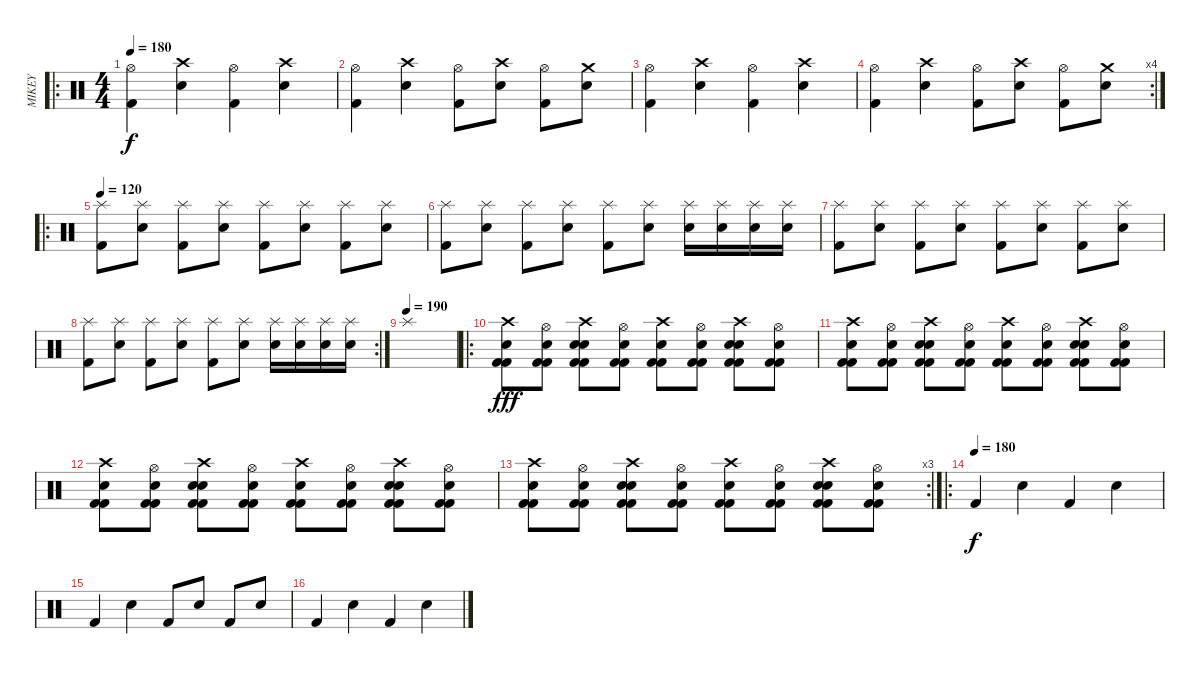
\track ("MIKEY" "MIKEY") {instrument percussion}
\staff {score}
\articulation defaults
\ro
\ts (4 4)
\tempo 180
\clef neutral
\ks c
("Hi-Hat (open)" "Kick (hit) 2").4{dy f} ("Crash high (hit)" "Snare (hit) 2").4 ("Hi-Hat (open)" "Kick (hit) 2").4 ("Crash high (hit)" "Snare (hit) 2").4 |
("Hi-Hat (open)" "Kick (hit) 2").4 ("Crash high (hit)" "Snare (hit) 2").4 ("Hi-Hat (open)" "Kick (hit) 2").8 ("Crash high (hit)" "Snare (hit) 2").8 ("Hi-Hat (open)" "Kick (hit) 2").8 ("Crash medium (hit)" "Snare (hit) 2").8 |
("Hi-Hat (open)" "Kick (hit) 2").4 ("Crash high (hit)" "Snare (hit) 2").4 ("Hi-Hat (open)" "Kick (hit) 2").4 ("Crash high (hit)" "Snare (hit) 2").4 |
\rc 4
("Hi-Hat (open)" "Kick (hit) 2").4 ("Crash high (hit)" "Snare (hit) 2").4 ("Hi-Hat (open)" "Kick (hit) 2").8 ("Crash high (hit)" "Snare (hit) 2").8 ("Hi-Hat (open)" "Kick (hit) 2").8 ("Crash medium (hit)" "Snare (hit) 2").8 |
\ro
\tempo 120
("Splash (hit)" "Kick (hit) 2").8 ("Splash (hit)" "Electric Snare (hit)").8 ("Splash (hit)" "Kick (hit) 2").8 ("Splash (hit)" "Electric Snare (hit)").8 ("Splash (hit)" "Kick (hit) 2").8 ("Splash (hit)" "Electric Snare (hit)").8 ("Splash (hit)" "Kick (hit) 2").8 ("Splash (hit)" "Electric Snare (hit)").8 |
("Splash (hit)" "Kick (hit) 2").8 ("Splash (hit)" "Electric Snare (hit)").8 ("Splash (hit)" "Kick (hit) 2").8 ("Splash (hit)" "Electric Snare (hit)").8 ("Splash (hit)" "Kick (hit) 2").8 ("Splash (hit)" "Electric Snare (hit)").8 ("Splash (hit)" "Electric Snare (hit)").16 ("Splash (hit)" "Electric Snare (hit)").16 ("Splash (hit)" "Electric Snare (hit)").16 ("Splash (hit)" "Electric Snare (hit)").16 |
("Splash (hit)" "Kick (hit) 2").8 ("Splash (hit)" "Electric Snare (hit)").8 ("Splash (hit)" "Kick (hit) 2").8 ("Splash (hit)" "Electric Snare (hit)").8 ("Splash (hit)" "Kick (hit) 2").8 ("Splash (hit)" "Electric Snare (hit)").8 ("Splash (hit)" "Kick (hit) 2").8 ("Splash (hit)" "Electric Snare (hit)").8 |
\rc 2
("Splash (hit)" "Kick (hit) 2").8 ("Splash (hit)" "Electric Snare (hit)").8 ("Splash (hit)" "Kick (hit) 2").8 ("Splash (hit)" "Electric Snare (hit)").8 ("Splash (hit)" "Kick (hit) 2").8 ("Splash (hit)" "Electric Snare (hit)").8 ("Splash (hit)" "Electric Snare (hit)").16 ("Splash (hit)" "Electric Snare (hit)").16 ("Splash (hit)" "Electric Snare (hit)").16 ("Splash (hit)" "Electric Snare (hit)").16 |
\tempo (190)
"Splash (hit)".1 |
\ro
("Electric Snare (hit)" "Kick (hit) 2" "Crash high (hit)" "Kick (hit) 2").8{dy fff} ("Electric Snare (hit)" "Kick (hit) 2" "Hi-Hat (open)" "Kick (hit) 2").8 ("Electric Snare (hit)" "Kick (hit) 2" "Crash high (hit)" "Snare (hit) 2" "Kick (hit) 2").8 ("Electric Snare (hit)" "Kick (hit) 2" "Hi-Hat (open)" "Kick (hit) 2").8 ("Electric Snare (hit)" "Kick (hit) 2" "Crash high (hit)" "Kick (hit) 2").8 ("Electric Snare (hit)" "Kick (hit) 2" "Hi-Hat (open)" "Kick (hit) 2").8 ("Electric Snare (hit)" "Kick (hit) 2" "Crash high (hit)" "Snare (hit) 2" "Kick (hit) 2").8 ("Electric Snare (hit)" "Kick (hit) 2" "Hi-Hat (open)" "Kick (hit) 2").8 |
("Electric Snare (hit)" "Kick (hit) 2" "Crash high (hit)" "Kick (hit) 2").8 ("Electric Snare (hit)" "Kick (hit) 2" "Hi-Hat (open)" "Kick (hit) 2").8 ("Electric Snare (hit)" "Kick (hit) 2" "Crash high (hit)" "Snare (hit) 2" "Kick (hit) 2").8 ("Electric Snare (hit)" "Kick (hit) 2" "Hi-Hat (open)" "Kick (hit) 2").8 ("Electric Snare (hit)" "Kick (hit) 2" "Crash high (hit)" "Kick (hit) 2").8 ("Electric Snare (hit)" "Kick (hit) 2" "Hi-Hat (open)" "Kick (hit) 2").8 ("Electric Snare (hit)" "Kick (hit) 2" "Crash high (hit)" "Snare (hit) 2" "Kick (hit) 2").8 ("Electric Snare (hit)" "Kick (hit) 2" "Hi-Hat (open)" "Kick (hit) 2").8 |
("Electric Snare (hit)" "Kick (hit) 2" "Crash high (hit)" "Kick (hit) 2").8 ("Electric Snare (hit)" "Kick (hit) 2" "Hi-Hat (open)" "Kick (hit) 2").8 ("Electric Snare (hit)" "Kick (hit) 2" "Crash high (hit)" "Snare (hit) 2" "Kick (hit) 2").8 ("Electric Snare (hit)" "Kick (hit) 2" "Hi-Hat (open)" "Kick (hit) 2").8 ("Electric Snare (hit)" "Kick (hit) 2" "Crash high (hit)" "Kick (hit) 2").8 ("Electric Snare (hit)" "Kick (hit) 2" "Hi-Hat (open)" "Kick (hit) 2").8 ("Electric Snare (hit)" "Kick (hit) 2" "Crash high (hit)" "Snare (hit) 2" "Kick (hit) 2").8 ("Electric Snare (hit)" "Kick (hit) 2" "Hi-Hat (open)" "Kick (hit) 2").8 |
\rc 3
("Electric Snare (hit)" "Kick (hit) 2" "Crash high (hit)" "Kick (hit) 2").8 ("Electric Snare (hit)" "Kick (hit) 2" "Hi-Hat (open)" "Kick (hit) 2").8 ("Electric Snare (hit)" "Kick (hit) 2" "Crash high (hit)" "Snare (hit) 2" "Kick (hit) 2").8 ("Electric Snare (hit)" "Kick (hit) 2" "Hi-Hat (open)" "Kick (hit) 2").8 ("Electric Snare (hit)" "Kick (hit) 2" "Crash high (hit)" "Kick (hit) 2").8 ("Electric Snare (hit)" "Kick (hit) 2" "Hi-Hat (open)" "Kick (hit) 2").8 ("Electric Snare (hit)" "Kick (hit) 2" "Crash high (hit)" "Snare (hit) 2" "Kick (hit) 2").8 ("Electric Snare (hit)" "Kick (hit) 2" "Hi-Hat (open)" "Kick (hit) 2").8 |
\ro
\tempo (180)
"Kick (hit) 2".4{dy f} "Snare (hit) 2".4 "Kick (hit) 2".4 "Snare (hit) 2".4 |
"Kick (hit) 2".4 "Snare (hit) 2".4 "Kick (hit) 2".8 "Snare (hit) 2".8 "Kick (hit) 2".8 "Snare (hit) 2".8 |
"Kick (hit) 2".4 "Snare (hit) 2".4 "Kick (hit) 2".4 "Snare (hit) 2".4
